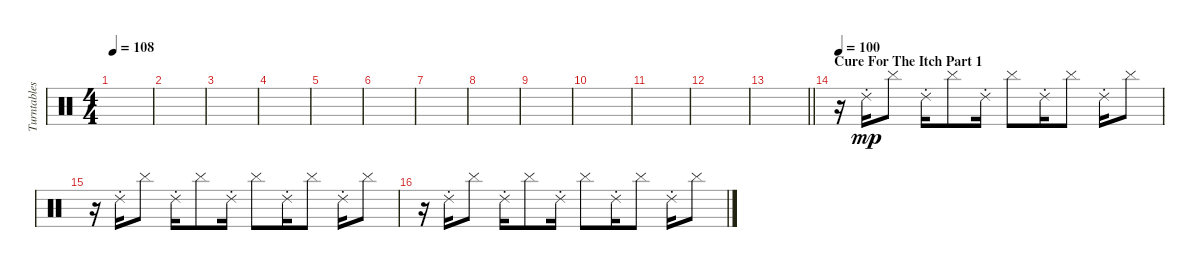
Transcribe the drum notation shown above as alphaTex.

\track ("Turntables - Joe Hahn" "Turntables") {instrument percussion}
\staff {score}
\articulation defaults
\ts (4 4)
\tempo 108
\clef neutral
\ks c
|
|
|
|
|
|
|
|
|
|
|
|
\barLineRight lightlight
|
\section ("" "Cure For The Itch Part 1")
\tempo 100
r.16{volume 13} "Ride (choke) 2".16{dy mp} "Cymbal (hit)".8 "Ride (choke) 2".16 "Cymbal (hit)".8 "Ride (choke) 2".16 "Cymbal (hit)".8 "Ride (choke) 2".16 "Cymbal (hit)".8 "Ride (choke) 2".16 "Cymbal (hit)".8 |
r.16 "Ride (choke) 2".16 "Cymbal (hit)".8 "Ride (choke) 2".16 "Cymbal (hit)".8 "Ride (choke) 2".16 "Cymbal (hit)".8 "Ride (choke) 2".16 "Cymbal (hit)".8 "Ride (choke) 2".16 "Cymbal (hit)".8 |
r.16 "Ride (choke) 2".16 "Cymbal (hit)".8 "Ride (choke) 2".16 "Cymbal (hit)".8 "Ride (choke) 2".16 "Cymbal (hit)".8 "Ride (choke) 2".16 "Cymbal (hit)".8 "Ride (choke) 2".16 "Cymbal (hit)".8
